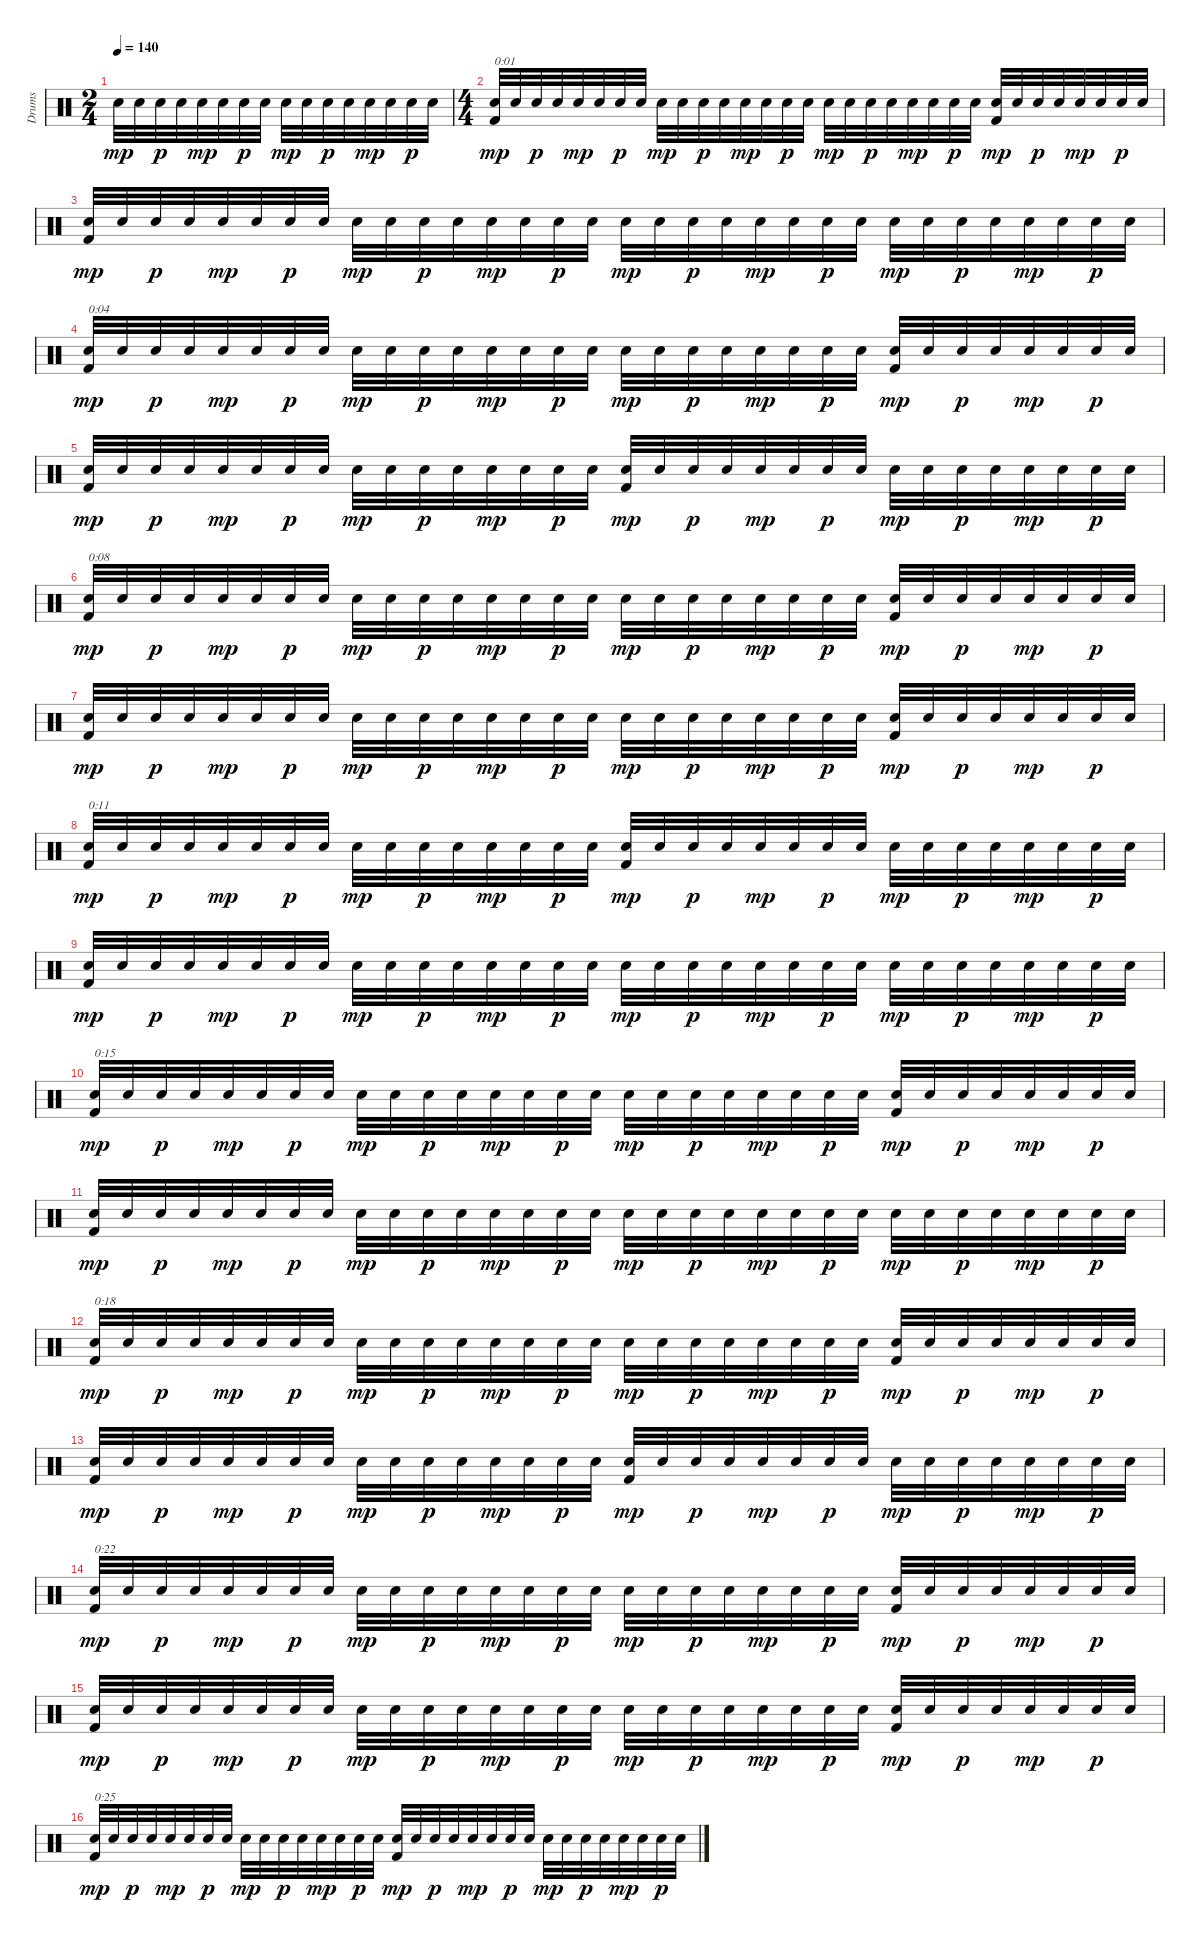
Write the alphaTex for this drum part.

\track ("Drums" "Drums") {instrument percussion}
\staff {score}
\articulation defaults
\ts (2 4)
\tempo 140
\clef neutral
\ks c "Snare (hit) 2".32{dy mp} "Snare (hit) 2".32 "Snare (hit) 2".32{dy p} "Snare (hit) 2".32 "Snare (hit) 2".32{dy mp} "Snare (hit) 2".32 "Snare (hit) 2".32{dy p} "Snare (hit) 2".32 "Snare (hit) 2".32{dy mp} "Snare (hit) 2".32 "Snare (hit) 2".32{dy p} "Snare (hit) 2".32 "Snare (hit) 2".32{dy mp} "Snare (hit) 2".32 "Snare (hit) 2".32{dy p} "Snare (hit) 2".32
|
\ts (4 4)
("Snare (hit) 2" "Kick (hit) 2").32{txt "0:01" dy mp} "Snare (hit) 2".32 "Snare (hit) 2".32{dy p} "Snare (hit) 2".32 "Snare (hit) 2".32{dy mp} "Snare (hit) 2".32 "Snare (hit) 2".32{dy p} "Snare (hit) 2".32 "Snare (hit) 2".32{dy mp} "Snare (hit) 2".32 "Snare (hit) 2".32{dy p} "Snare (hit) 2".32 "Snare (hit) 2".32{dy mp} "Snare (hit) 2".32 "Snare (hit) 2".32{dy p} "Snare (hit) 2".32 "Snare (hit) 2".32{dy mp} "Snare (hit) 2".32 "Snare (hit) 2".32{dy p} "Snare (hit) 2".32 "Snare (hit) 2".32{dy mp} "Snare (hit) 2".32 "Snare (hit) 2".32{dy p} "Snare (hit) 2".32 ("Snare (hit) 2" "Kick (hit) 2").32{dy mp} "Snare (hit) 2".32 "Snare (hit) 2".32{dy p} "Snare (hit) 2".32 "Snare (hit) 2".32{dy mp} "Snare (hit) 2".32 "Snare (hit) 2".32{dy p} "Snare (hit) 2".32 |
("Snare (hit) 2" "Kick (hit) 2").32{dy mp} "Snare (hit) 2".32 "Snare (hit) 2".32{dy p} "Snare (hit) 2".32 "Snare (hit) 2".32{dy mp} "Snare (hit) 2".32 "Snare (hit) 2".32{dy p} "Snare (hit) 2".32 "Snare (hit) 2".32{dy mp} "Snare (hit) 2".32 "Snare (hit) 2".32{dy p} "Snare (hit) 2".32 "Snare (hit) 2".32{dy mp} "Snare (hit) 2".32 "Snare (hit) 2".32{dy p} "Snare (hit) 2".32 "Snare (hit) 2".32{dy mp} "Snare (hit) 2".32 "Snare (hit) 2".32{dy p} "Snare (hit) 2".32 "Snare (hit) 2".32{dy mp} "Snare (hit) 2".32 "Snare (hit) 2".32{dy p} "Snare (hit) 2".32 "Snare (hit) 2".32{dy mp} "Snare (hit) 2".32 "Snare (hit) 2".32{dy p} "Snare (hit) 2".32 "Snare (hit) 2".32{dy mp} "Snare (hit) 2".32 "Snare (hit) 2".32{dy p} "Snare (hit) 2".32 |
("Snare (hit) 2" "Kick (hit) 2").32{txt "0:04" dy mp} "Snare (hit) 2".32 "Snare (hit) 2".32{dy p} "Snare (hit) 2".32 "Snare (hit) 2".32{dy mp} "Snare (hit) 2".32 "Snare (hit) 2".32{dy p} "Snare (hit) 2".32 "Snare (hit) 2".32{dy mp} "Snare (hit) 2".32 "Snare (hit) 2".32{dy p} "Snare (hit) 2".32 "Snare (hit) 2".32{dy mp} "Snare (hit) 2".32 "Snare (hit) 2".32{dy p} "Snare (hit) 2".32 "Snare (hit) 2".32{dy mp} "Snare (hit) 2".32 "Snare (hit) 2".32{dy p} "Snare (hit) 2".32 "Snare (hit) 2".32{dy mp} "Snare (hit) 2".32 "Snare (hit) 2".32{dy p} "Snare (hit) 2".32 ("Snare (hit) 2" "Kick (hit) 2").32{dy mp} "Snare (hit) 2".32 "Snare (hit) 2".32{dy p} "Snare (hit) 2".32 "Snare (hit) 2".32{dy mp} "Snare (hit) 2".32 "Snare (hit) 2".32{dy p} "Snare (hit) 2".32 |
("Snare (hit) 2" "Kick (hit) 2").32{dy mp} "Snare (hit) 2".32 "Snare (hit) 2".32{dy p} "Snare (hit) 2".32 "Snare (hit) 2".32{dy mp} "Snare (hit) 2".32 "Snare (hit) 2".32{dy p} "Snare (hit) 2".32 "Snare (hit) 2".32{dy mp} "Snare (hit) 2".32 "Snare (hit) 2".32{dy p} "Snare (hit) 2".32 "Snare (hit) 2".32{dy mp} "Snare (hit) 2".32 "Snare (hit) 2".32{dy p} "Snare (hit) 2".32 ("Snare (hit) 2" "Kick (hit) 2").32{dy mp} "Snare (hit) 2".32 "Snare (hit) 2".32{dy p} "Snare (hit) 2".32 "Snare (hit) 2".32{dy mp} "Snare (hit) 2".32 "Snare (hit) 2".32{dy p} "Snare (hit) 2".32 "Snare (hit) 2".32{dy mp} "Snare (hit) 2".32 "Snare (hit) 2".32{dy p} "Snare (hit) 2".32 "Snare (hit) 2".32{dy mp} "Snare (hit) 2".32 "Snare (hit) 2".32{dy p} "Snare (hit) 2".32 |
("Snare (hit) 2" "Kick (hit) 2").32{txt "0:08" dy mp} "Snare (hit) 2".32 "Snare (hit) 2".32{dy p} "Snare (hit) 2".32 "Snare (hit) 2".32{dy mp} "Snare (hit) 2".32 "Snare (hit) 2".32{dy p} "Snare (hit) 2".32 "Snare (hit) 2".32{dy mp} "Snare (hit) 2".32 "Snare (hit) 2".32{dy p} "Snare (hit) 2".32 "Snare (hit) 2".32{dy mp} "Snare (hit) 2".32 "Snare (hit) 2".32{dy p} "Snare (hit) 2".32 "Snare (hit) 2".32{dy mp} "Snare (hit) 2".32 "Snare (hit) 2".32{dy p} "Snare (hit) 2".32 "Snare (hit) 2".32{dy mp} "Snare (hit) 2".32 "Snare (hit) 2".32{dy p} "Snare (hit) 2".32 ("Snare (hit) 2" "Kick (hit) 2").32{dy mp} "Snare (hit) 2".32 "Snare (hit) 2".32{dy p} "Snare (hit) 2".32 "Snare (hit) 2".32{dy mp} "Snare (hit) 2".32 "Snare (hit) 2".32{dy p} "Snare (hit) 2".32 |
("Snare (hit) 2" "Kick (hit) 2").32{dy mp} "Snare (hit) 2".32 "Snare (hit) 2".32{dy p} "Snare (hit) 2".32 "Snare (hit) 2".32{dy mp} "Snare (hit) 2".32 "Snare (hit) 2".32{dy p} "Snare (hit) 2".32 "Snare (hit) 2".32{dy mp} "Snare (hit) 2".32 "Snare (hit) 2".32{dy p} "Snare (hit) 2".32 "Snare (hit) 2".32{dy mp} "Snare (hit) 2".32 "Snare (hit) 2".32{dy p} "Snare (hit) 2".32 "Snare (hit) 2".32{dy mp} "Snare (hit) 2".32 "Snare (hit) 2".32{dy p} "Snare (hit) 2".32 "Snare (hit) 2".32{dy mp} "Snare (hit) 2".32 "Snare (hit) 2".32{dy p} "Snare (hit) 2".32 ("Snare (hit) 2" "Kick (hit) 2").32{dy mp} "Snare (hit) 2".32 "Snare (hit) 2".32{dy p} "Snare (hit) 2".32 "Snare (hit) 2".32{dy mp} "Snare (hit) 2".32 "Snare (hit) 2".32{dy p} "Snare (hit) 2".32 |
("Snare (hit) 2" "Kick (hit) 2").32{txt "0:11" dy mp} "Snare (hit) 2".32 "Snare (hit) 2".32{dy p} "Snare (hit) 2".32 "Snare (hit) 2".32{dy mp} "Snare (hit) 2".32 "Snare (hit) 2".32{dy p} "Snare (hit) 2".32 "Snare (hit) 2".32{dy mp} "Snare (hit) 2".32 "Snare (hit) 2".32{dy p} "Snare (hit) 2".32 "Snare (hit) 2".32{dy mp} "Snare (hit) 2".32 "Snare (hit) 2".32{dy p} "Snare (hit) 2".32 ("Snare (hit) 2" "Kick (hit) 2").32{dy mp} "Snare (hit) 2".32 "Snare (hit) 2".32{dy p} "Snare (hit) 2".32 "Snare (hit) 2".32{dy mp} "Snare (hit) 2".32 "Snare (hit) 2".32{dy p} "Snare (hit) 2".32 "Snare (hit) 2".32{dy mp} "Snare (hit) 2".32 "Snare (hit) 2".32{dy p} "Snare (hit) 2".32 "Snare (hit) 2".32{dy mp} "Snare (hit) 2".32 "Snare (hit) 2".32{dy p} "Snare (hit) 2".32 |
("Snare (hit) 2" "Kick (hit) 2").32{dy mp} "Snare (hit) 2".32 "Snare (hit) 2".32{dy p} "Snare (hit) 2".32 "Snare (hit) 2".32{dy mp} "Snare (hit) 2".32 "Snare (hit) 2".32{dy p} "Snare (hit) 2".32 "Snare (hit) 2".32{dy mp} "Snare (hit) 2".32 "Snare (hit) 2".32{dy p} "Snare (hit) 2".32 "Snare (hit) 2".32{dy mp} "Snare (hit) 2".32 "Snare (hit) 2".32{dy p} "Snare (hit) 2".32 "Snare (hit) 2".32{dy mp} "Snare (hit) 2".32 "Snare (hit) 2".32{dy p} "Snare (hit) 2".32 "Snare (hit) 2".32{dy mp} "Snare (hit) 2".32 "Snare (hit) 2".32{dy p} "Snare (hit) 2".32 "Snare (hit) 2".32{dy mp} "Snare (hit) 2".32 "Snare (hit) 2".32{dy p} "Snare (hit) 2".32 "Snare (hit) 2".32{dy mp} "Snare (hit) 2".32 "Snare (hit) 2".32{dy p} "Snare (hit) 2".32 |
("Snare (hit) 2" "Kick (hit) 2").32{txt "0:15" dy mp} "Snare (hit) 2".32 "Snare (hit) 2".32{dy p} "Snare (hit) 2".32 "Snare (hit) 2".32{dy mp} "Snare (hit) 2".32 "Snare (hit) 2".32{dy p} "Snare (hit) 2".32 "Snare (hit) 2".32{dy mp} "Snare (hit) 2".32 "Snare (hit) 2".32{dy p} "Snare (hit) 2".32 "Snare (hit) 2".32{dy mp} "Snare (hit) 2".32 "Snare (hit) 2".32{dy p} "Snare (hit) 2".32 "Snare (hit) 2".32{dy mp} "Snare (hit) 2".32 "Snare (hit) 2".32{dy p} "Snare (hit) 2".32 "Snare (hit) 2".32{dy mp} "Snare (hit) 2".32 "Snare (hit) 2".32{dy p} "Snare (hit) 2".32 ("Snare (hit) 2" "Kick (hit) 2").32{dy mp} "Snare (hit) 2".32 "Snare (hit) 2".32{dy p} "Snare (hit) 2".32 "Snare (hit) 2".32{dy mp} "Snare (hit) 2".32 "Snare (hit) 2".32{dy p} "Snare (hit) 2".32 |
("Snare (hit) 2" "Kick (hit) 2").32{dy mp} "Snare (hit) 2".32 "Snare (hit) 2".32{dy p} "Snare (hit) 2".32 "Snare (hit) 2".32{dy mp} "Snare (hit) 2".32 "Snare (hit) 2".32{dy p} "Snare (hit) 2".32 "Snare (hit) 2".32{dy mp} "Snare (hit) 2".32 "Snare (hit) 2".32{dy p} "Snare (hit) 2".32 "Snare (hit) 2".32{dy mp} "Snare (hit) 2".32 "Snare (hit) 2".32{dy p} "Snare (hit) 2".32 "Snare (hit) 2".32{dy mp} "Snare (hit) 2".32 "Snare (hit) 2".32{dy p} "Snare (hit) 2".32 "Snare (hit) 2".32{dy mp} "Snare (hit) 2".32 "Snare (hit) 2".32{dy p} "Snare (hit) 2".32 "Snare (hit) 2".32{dy mp} "Snare (hit) 2".32 "Snare (hit) 2".32{dy p} "Snare (hit) 2".32 "Snare (hit) 2".32{dy mp} "Snare (hit) 2".32 "Snare (hit) 2".32{dy p} "Snare (hit) 2".32 |
("Snare (hit) 2" "Kick (hit) 2").32{txt "0:18" dy mp} "Snare (hit) 2".32 "Snare (hit) 2".32{dy p} "Snare (hit) 2".32 "Snare (hit) 2".32{dy mp} "Snare (hit) 2".32 "Snare (hit) 2".32{dy p} "Snare (hit) 2".32 "Snare (hit) 2".32{dy mp} "Snare (hit) 2".32 "Snare (hit) 2".32{dy p} "Snare (hit) 2".32 "Snare (hit) 2".32{dy mp} "Snare (hit) 2".32 "Snare (hit) 2".32{dy p} "Snare (hit) 2".32 "Snare (hit) 2".32{dy mp} "Snare (hit) 2".32 "Snare (hit) 2".32{dy p} "Snare (hit) 2".32 "Snare (hit) 2".32{dy mp} "Snare (hit) 2".32 "Snare (hit) 2".32{dy p} "Snare (hit) 2".32 ("Snare (hit) 2" "Kick (hit) 2").32{dy mp} "Snare (hit) 2".32 "Snare (hit) 2".32{dy p} "Snare (hit) 2".32 "Snare (hit) 2".32{dy mp} "Snare (hit) 2".32 "Snare (hit) 2".32{dy p} "Snare (hit) 2".32 |
("Snare (hit) 2" "Kick (hit) 2").32{dy mp} "Snare (hit) 2".32 "Snare (hit) 2".32{dy p} "Snare (hit) 2".32 "Snare (hit) 2".32{dy mp} "Snare (hit) 2".32 "Snare (hit) 2".32{dy p} "Snare (hit) 2".32 "Snare (hit) 2".32{dy mp} "Snare (hit) 2".32 "Snare (hit) 2".32{dy p} "Snare (hit) 2".32 "Snare (hit) 2".32{dy mp} "Snare (hit) 2".32 "Snare (hit) 2".32{dy p} "Snare (hit) 2".32 ("Snare (hit) 2" "Kick (hit) 2").32{dy mp} "Snare (hit) 2".32 "Snare (hit) 2".32{dy p} "Snare (hit) 2".32 "Snare (hit) 2".32{dy mp} "Snare (hit) 2".32 "Snare (hit) 2".32{dy p} "Snare (hit) 2".32 "Snare (hit) 2".32{dy mp} "Snare (hit) 2".32 "Snare (hit) 2".32{dy p} "Snare (hit) 2".32 "Snare (hit) 2".32{dy mp} "Snare (hit) 2".32 "Snare (hit) 2".32{dy p} "Snare (hit) 2".32 |
("Snare (hit) 2" "Kick (hit) 2").32{txt "0:22" dy mp} "Snare (hit) 2".32 "Snare (hit) 2".32{dy p} "Snare (hit) 2".32 "Snare (hit) 2".32{dy mp} "Snare (hit) 2".32 "Snare (hit) 2".32{dy p} "Snare (hit) 2".32 "Snare (hit) 2".32{dy mp} "Snare (hit) 2".32 "Snare (hit) 2".32{dy p} "Snare (hit) 2".32 "Snare (hit) 2".32{dy mp} "Snare (hit) 2".32 "Snare (hit) 2".32{dy p} "Snare (hit) 2".32 "Snare (hit) 2".32{dy mp} "Snare (hit) 2".32 "Snare (hit) 2".32{dy p} "Snare (hit) 2".32 "Snare (hit) 2".32{dy mp} "Snare (hit) 2".32 "Snare (hit) 2".32{dy p} "Snare (hit) 2".32 ("Snare (hit) 2" "Kick (hit) 2").32{dy mp} "Snare (hit) 2".32 "Snare (hit) 2".32{dy p} "Snare (hit) 2".32 "Snare (hit) 2".32{dy mp} "Snare (hit) 2".32 "Snare (hit) 2".32{dy p} "Snare (hit) 2".32 |
("Snare (hit) 2" "Kick (hit) 2").32{dy mp} "Snare (hit) 2".32 "Snare (hit) 2".32{dy p} "Snare (hit) 2".32 "Snare (hit) 2".32{dy mp} "Snare (hit) 2".32 "Snare (hit) 2".32{dy p} "Snare (hit) 2".32 "Snare (hit) 2".32{dy mp} "Snare (hit) 2".32 "Snare (hit) 2".32{dy p} "Snare (hit) 2".32 "Snare (hit) 2".32{dy mp} "Snare (hit) 2".32 "Snare (hit) 2".32{dy p} "Snare (hit) 2".32 "Snare (hit) 2".32{dy mp} "Snare (hit) 2".32 "Snare (hit) 2".32{dy p} "Snare (hit) 2".32 "Snare (hit) 2".32{dy mp} "Snare (hit) 2".32 "Snare (hit) 2".32{dy p} "Snare (hit) 2".32 ("Snare (hit) 2" "Kick (hit) 2").32{dy mp} "Snare (hit) 2".32 "Snare (hit) 2".32{dy p} "Snare (hit) 2".32 "Snare (hit) 2".32{dy mp} "Snare (hit) 2".32 "Snare (hit) 2".32{dy p} "Snare (hit) 2".32 |
("Snare (hit) 2" "Kick (hit) 2").32{txt "0:25" dy mp} "Snare (hit) 2".32 "Snare (hit) 2".32{dy p} "Snare (hit) 2".32 "Snare (hit) 2".32{dy mp} "Snare (hit) 2".32 "Snare (hit) 2".32{dy p} "Snare (hit) 2".32 "Snare (hit) 2".32{dy mp} "Snare (hit) 2".32 "Snare (hit) 2".32{dy p} "Snare (hit) 2".32 "Snare (hit) 2".32{dy mp} "Snare (hit) 2".32 "Snare (hit) 2".32{dy p} "Snare (hit) 2".32 ("Snare (hit) 2" "Kick (hit) 2").32{dy mp} "Snare (hit) 2".32 "Snare (hit) 2".32{dy p} "Snare (hit) 2".32 "Snare (hit) 2".32{dy mp} "Snare (hit) 2".32 "Snare (hit) 2".32{dy p} "Snare (hit) 2".32 "Snare (hit) 2".32{dy mp} "Snare (hit) 2".32 "Snare (hit) 2".32{dy p} "Snare (hit) 2".32 "Snare (hit) 2".32{dy mp} "Snare (hit) 2".32 "Snare (hit) 2".32{dy p} "Snare (hit) 2".32
